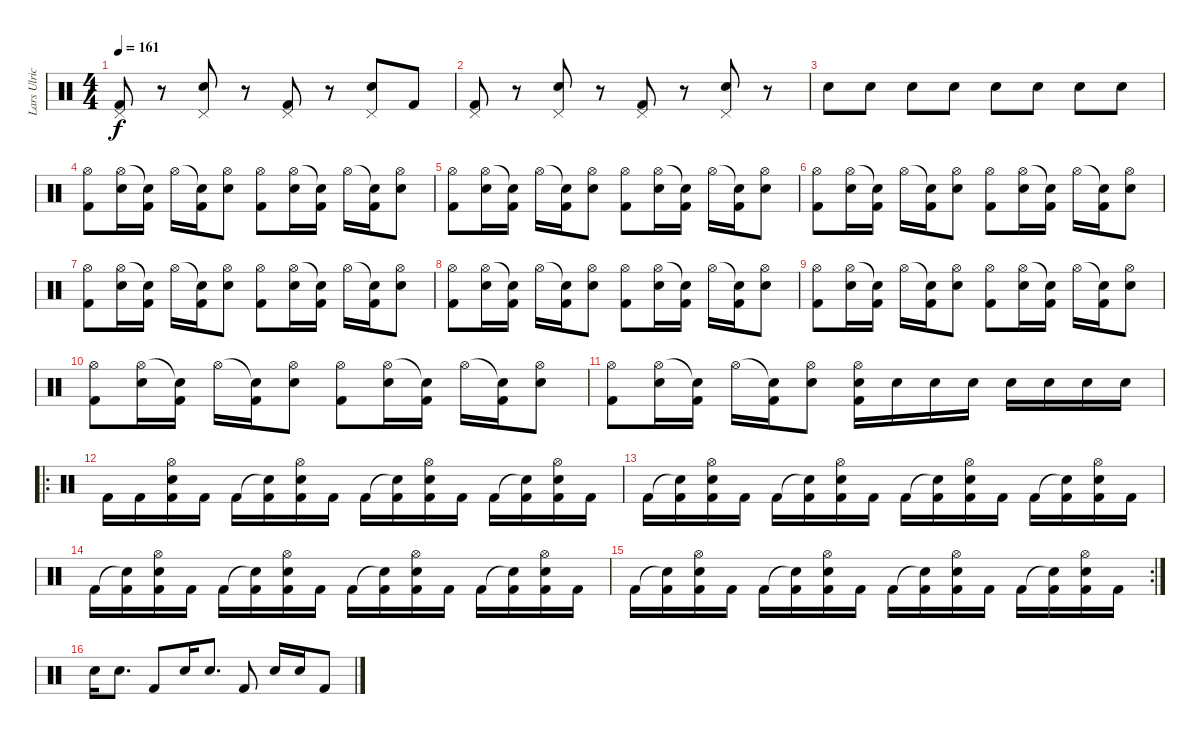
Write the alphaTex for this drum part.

\track ("Lars Ulrich" "Lars Ulric") {instrument percussion}
\staff {score}
\articulation defaults
\ts (4 4)
\tempo 161
\clef neutral
\ks c
("Pedal Hi-Hat (hit)" "Kick (hit) 2").8{dy f} r.8 ("Pedal Hi-Hat (hit)" "Electric Snare (hit)").8 r.8 ("Pedal Hi-Hat (hit)" "Kick (hit) 2").8 r.8 ("Pedal Hi-Hat (hit)" "Electric Snare (hit)").8 "Kick (hit) 2".8 |
("Pedal Hi-Hat (hit)" "Kick (hit) 2").8 r.8 ("Pedal Hi-Hat (hit)" "Electric Snare (hit)").8 r.8 ("Pedal Hi-Hat (hit)" "Kick (hit) 2").8 r.8 ("Pedal Hi-Hat (hit)" "Electric Snare (hit)").8 r.8 |
"Electric Snare (hit)".8 "Electric Snare (hit)".8 "Electric Snare (hit)".8 "Electric Snare (hit)".8 "Electric Snare (hit)".8 "Electric Snare (hit)".8 "Electric Snare (hit)".8 "Electric Snare (hit)".8 |
("Hi-Hat (open)" "Kick (hit) 2").8 ("Hi-Hat (open)" "Electric Snare (hit)").16 ("Snare (hit)"{t} "Kick (hit) 2").16 "Hi-Hat (open)".16 ("Snare (hit)"{t} "Kick (hit) 2").16 ("Hi-Hat (open)" "Electric Snare (hit)").8 ("Hi-Hat (open)" "Kick (hit) 2").8 ("Hi-Hat (open)" "Electric Snare (hit)").16 ("Snare (hit)"{t} "Kick (hit) 2").16 "Hi-Hat (open)".16 ("Snare (hit)"{t} "Kick (hit) 2").16 ("Hi-Hat (open)" "Electric Snare (hit)").8 |
("Hi-Hat (open)" "Kick (hit) 2").8 ("Hi-Hat (open)" "Electric Snare (hit)").16 ("Snare (hit)"{t} "Kick (hit) 2").16 "Hi-Hat (open)".16 ("Snare (hit)"{t} "Kick (hit) 2").16 ("Hi-Hat (open)" "Electric Snare (hit)").8 ("Hi-Hat (open)" "Kick (hit) 2").8 ("Hi-Hat (open)" "Electric Snare (hit)").16 ("Snare (hit)"{t} "Kick (hit) 2").16 "Hi-Hat (open)".16 ("Snare (hit)"{t} "Kick (hit) 2").16 ("Hi-Hat (open)" "Electric Snare (hit)").8 |
("Hi-Hat (open)" "Kick (hit) 2").8 ("Hi-Hat (open)" "Electric Snare (hit)").16 ("Snare (hit)"{t} "Kick (hit) 2").16 "Hi-Hat (open)".16 ("Snare (hit)"{t} "Kick (hit) 2").16 ("Hi-Hat (open)" "Electric Snare (hit)").8 ("Hi-Hat (open)" "Kick (hit) 2").8 ("Hi-Hat (open)" "Electric Snare (hit)").16 ("Snare (hit)"{t} "Kick (hit) 2").16 "Hi-Hat (open)".16 ("Snare (hit)"{t} "Kick (hit) 2").16 ("Hi-Hat (open)" "Electric Snare (hit)").8 |
("Hi-Hat (open)" "Kick (hit) 2").8 ("Hi-Hat (open)" "Electric Snare (hit)").16 ("Snare (hit)"{t} "Kick (hit) 2").16 "Hi-Hat (open)".16 ("Snare (hit)"{t} "Kick (hit) 2").16 ("Hi-Hat (open)" "Electric Snare (hit)").8 ("Hi-Hat (open)" "Kick (hit) 2").8 ("Hi-Hat (open)" "Electric Snare (hit)").16 ("Snare (hit)"{t} "Kick (hit) 2").16 "Hi-Hat (open)".16 ("Snare (hit)"{t} "Kick (hit) 2").16 ("Hi-Hat (open)" "Electric Snare (hit)").8 |
("Hi-Hat (open)" "Kick (hit) 2").8 ("Hi-Hat (open)" "Electric Snare (hit)").16 ("Snare (hit)"{t} "Kick (hit) 2").16 "Hi-Hat (open)".16 ("Snare (hit)"{t} "Kick (hit) 2").16 ("Hi-Hat (open)" "Electric Snare (hit)").8 ("Hi-Hat (open)" "Kick (hit) 2").8 ("Hi-Hat (open)" "Electric Snare (hit)").16 ("Snare (hit)"{t} "Kick (hit) 2").16 "Hi-Hat (open)".16 ("Snare (hit)"{t} "Kick (hit) 2").16 ("Hi-Hat (open)" "Electric Snare (hit)").8 |
("Hi-Hat (open)" "Kick (hit) 2").8 ("Hi-Hat (open)" "Electric Snare (hit)").16 ("Snare (hit)"{t} "Kick (hit) 2").16 "Hi-Hat (open)".16 ("Snare (hit)"{t} "Kick (hit) 2").16 ("Hi-Hat (open)" "Electric Snare (hit)").8 ("Hi-Hat (open)" "Kick (hit) 2").8 ("Hi-Hat (open)" "Electric Snare (hit)").16 ("Snare (hit)"{t} "Kick (hit) 2").16 "Hi-Hat (open)".16 ("Snare (hit)"{t} "Kick (hit) 2").16 ("Hi-Hat (open)" "Electric Snare (hit)").8 |
("Hi-Hat (open)" "Kick (hit) 2").8 ("Hi-Hat (open)" "Electric Snare (hit)").16 ("Snare (hit)"{t} "Kick (hit) 2").16 "Hi-Hat (open)".16 ("Snare (hit)"{t} "Kick (hit) 2").16 ("Hi-Hat (open)" "Electric Snare (hit)").8 ("Hi-Hat (open)" "Kick (hit) 2").8 ("Hi-Hat (open)" "Electric Snare (hit)").16 ("Snare (hit)"{t} "Kick (hit) 2").16 "Hi-Hat (open)".16 ("Snare (hit)"{t} "Kick (hit) 2").16 ("Hi-Hat (open)" "Electric Snare (hit)").8 |
("Hi-Hat (open)" "Kick (hit) 2").8 ("Hi-Hat (open)" "Electric Snare (hit)").16 ("Snare (hit)"{t} "Kick (hit) 2").16 "Hi-Hat (open)".16 ("Snare (hit)"{t} "Kick (hit) 2").16 ("Hi-Hat (open)" "Electric Snare (hit)").8 ("Hi-Hat (open)" "Electric Snare (hit)" "Kick (hit) 2").16 "Electric Snare (hit)".16 "Electric Snare (hit)".16 "Electric Snare (hit)".16 "Electric Snare (hit)".16 "Electric Snare (hit)".16 "Electric Snare (hit)".16 "Electric Snare (hit)".16 |
\ro "Kick (hit) 2".16 "Kick (hit) 2".16
("Hi-Hat (open)" "Electric Snare (hit)" "Kick (hit) 2").16 "Kick (hit) 2".16 "Kick (hit) 2".16 ("Snare (hit)"{t} "Kick (hit) 2").16 ("Hi-Hat (open)" "Electric Snare (hit)" "Kick (hit) 2").16 "Kick (hit) 2".16 "Kick (hit) 2".16 ("Snare (hit)"{t} "Kick (hit) 2").16 ("Hi-Hat (open)" "Electric Snare (hit)" "Kick (hit) 2").16 "Kick (hit) 2".16 "Kick (hit) 2".16 ("Snare (hit)"{t} "Kick (hit) 2").16 ("Hi-Hat (open)" "Electric Snare (hit)" "Kick (hit) 2").16 "Kick (hit) 2".16 |
"Kick (hit) 2".16 ("Snare (hit)"{t} "Kick (hit) 2").16 ("Hi-Hat (open)" "Electric Snare (hit)" "Kick (hit) 2").16 "Kick (hit) 2".16 "Kick (hit) 2".16 ("Snare (hit)"{t} "Kick (hit) 2").16 ("Hi-Hat (open)" "Electric Snare (hit)" "Kick (hit) 2").16 "Kick (hit) 2".16 "Kick (hit) 2".16 ("Snare (hit)"{t} "Kick (hit) 2").16 ("Hi-Hat (open)" "Electric Snare (hit)" "Kick (hit) 2").16 "Kick (hit) 2".16 "Kick (hit) 2".16 ("Snare (hit)"{t} "Kick (hit) 2").16 ("Hi-Hat (open)" "Electric Snare (hit)" "Kick (hit) 2").16 "Kick (hit) 2".16 |
"Kick (hit) 2".16 ("Snare (hit)"{t} "Kick (hit) 2").16 ("Hi-Hat (open)" "Electric Snare (hit)" "Kick (hit) 2").16 "Kick (hit) 2".16 "Kick (hit) 2".16 ("Snare (hit)"{t} "Kick (hit) 2").16 ("Hi-Hat (open)" "Electric Snare (hit)" "Kick (hit) 2").16 "Kick (hit) 2".16 "Kick (hit) 2".16 ("Snare (hit)"{t} "Kick (hit) 2").16 ("Hi-Hat (open)" "Electric Snare (hit)" "Kick (hit) 2").16 "Kick (hit) 2".16 "Kick (hit) 2".16 ("Snare (hit)"{t} "Kick (hit) 2").16 ("Hi-Hat (open)" "Electric Snare (hit)" "Kick (hit) 2").16 "Kick (hit) 2".16 |
\rc 2 "Kick (hit) 2".16
("Snare (hit)"{t} "Kick (hit) 2").16 ("Hi-Hat (open)" "Electric Snare (hit)" "Kick (hit) 2").16 "Kick (hit) 2".16 "Kick (hit) 2".16 ("Snare (hit)"{t} "Kick (hit) 2").16 ("Hi-Hat (open)" "Electric Snare (hit)" "Kick (hit) 2").16 "Kick (hit) 2".16 "Kick (hit) 2".16 ("Snare (hit)"{t} "Kick (hit) 2").16 ("Hi-Hat (open)" "Electric Snare (hit)" "Kick (hit) 2").16 "Kick (hit) 2".16 "Kick (hit) 2".16 ("Snare (hit)"{t} "Kick (hit) 2").16 ("Hi-Hat (open)" "Electric Snare (hit)" "Kick (hit) 2").16 "Kick (hit) 2".16 |
"Electric Snare (hit)".16 "Electric Snare (hit)".8{d} "Kick (hit) 2".8 "Electric Snare (hit)".16 "Electric Snare (hit)".8{d} "Kick (hit) 2".8 "Electric Snare (hit)".16 "Electric Snare (hit)".16 "Kick (hit) 2".8
